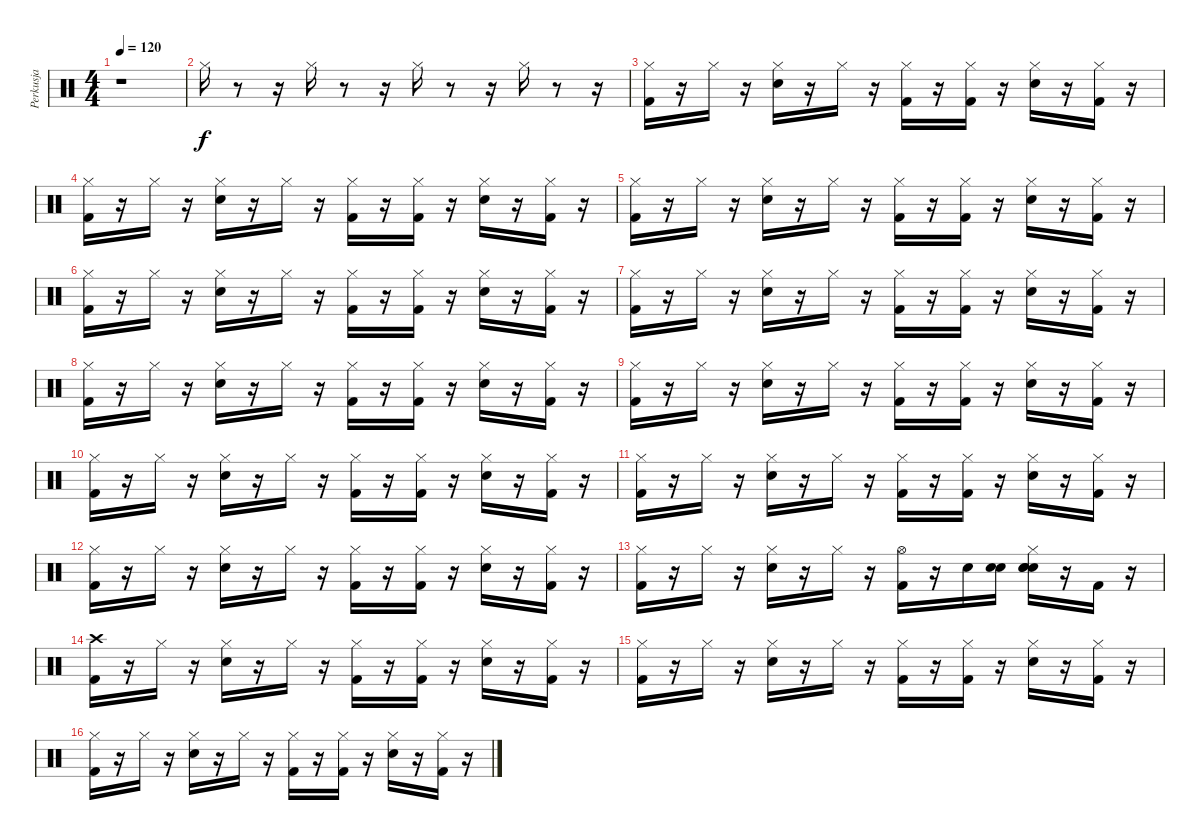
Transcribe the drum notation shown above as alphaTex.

\track ("Perkusja" "Perkusja") {instrument percussion}
\staff {score}
\articulation defaults
\ts (4 4)
\tempo 120
\clef neutral
\ks c
r.1{dy f} |
"Hi-Hat (closed)".16 r.8 r.16 "Hi-Hat (closed)".16 r.8 r.16 "Hi-Hat (closed)".16 r.8 r.16 "Hi-Hat (closed)".16 r.8 r.16 |
("Kick (hit) 2" "Hi-Hat (closed)").16 r.16 "Hi-Hat (closed)".16 r.16 ("Snare (hit) 2" "Hi-Hat (closed)").16 r.16 "Hi-Hat (closed)".16 r.16 ("Hi-Hat (closed)" "Kick (hit) 2").16 r.16 ("Hi-Hat (closed)" "Kick (hit) 2").16 r.16 ("Hi-Hat (closed)" "Snare (hit) 2").16 r.16 ("Hi-Hat (closed)" "Kick (hit) 2").16 r.16 |
("Kick (hit) 2" "Hi-Hat (closed)").16 r.16 "Hi-Hat (closed)".16 r.16 ("Hi-Hat (closed)" "Snare (hit) 2").16 r.16 "Hi-Hat (closed)".16 r.16 ("Hi-Hat (closed)" "Kick (hit) 2").16 r.16 ("Hi-Hat (closed)" "Kick (hit) 2").16 r.16 ("Hi-Hat (closed)" "Snare (hit) 2").16 r.16 ("Kick (hit) 2" "Hi-Hat (closed)").16 r.16 |
("Kick (hit) 2" "Hi-Hat (closed)").16 r.16 "Hi-Hat (closed)".16 r.16 ("Hi-Hat (closed)" "Snare (hit) 2").16 r.16 "Hi-Hat (closed)".16 r.16 ("Hi-Hat (closed)" "Kick (hit) 2").16 r.16 ("Hi-Hat (closed)" "Kick (hit) 2").16 r.16 ("Hi-Hat (closed)" "Snare (hit) 2").16 r.16 ("Hi-Hat (closed)" "Kick (hit) 2").16 r.16 |
("Kick (hit) 2" "Hi-Hat (closed)").16 r.16 "Hi-Hat (closed)".16 r.16 ("Snare (hit) 2" "Hi-Hat (closed)").16 r.16 "Hi-Hat (closed)".16 r.16 ("Kick (hit) 2" "Hi-Hat (closed)").16 r.16 ("Hi-Hat (closed)" "Kick (hit) 2").16 r.16 ("Snare (hit) 2" "Hi-Hat (closed)").16 r.16 ("Hi-Hat (closed)" "Kick (hit) 2").16 r.16 |
("Kick (hit) 2" "Hi-Hat (closed)").16 r.16 "Hi-Hat (closed)".16 r.16 ("Hi-Hat (closed)" "Snare (hit) 2").16 r.16 "Hi-Hat (closed)".16 r.16 ("Hi-Hat (closed)" "Kick (hit) 2").16 r.16 ("Kick (hit) 2" "Hi-Hat (closed)").16 r.16 ("Hi-Hat (closed)" "Snare (hit) 2").16 r.16 ("Hi-Hat (closed)" "Kick (hit) 2").16 r.16 |
("Kick (hit) 2" "Hi-Hat (closed)").16 r.16 "Hi-Hat (closed)".16 r.16 ("Hi-Hat (closed)" "Snare (hit) 2").16 r.16 "Hi-Hat (closed)".16 r.16 ("Kick (hit) 2" "Hi-Hat (closed)").16 r.16 ("Hi-Hat (closed)" "Kick (hit) 2").16 r.16 ("Hi-Hat (closed)" "Snare (hit) 2").16 r.16 ("Hi-Hat (closed)" "Kick (hit) 2").16 r.16 |
("Kick (hit) 2" "Hi-Hat (closed)").16 r.16 "Hi-Hat (closed)".16 r.16 ("Hi-Hat (closed)" "Snare (hit) 2").16 r.16 "Hi-Hat (closed)".16 r.16 ("Kick (hit) 2" "Hi-Hat (closed)").16 r.16 ("Kick (hit) 2" "Hi-Hat (closed)").16 r.16 ("Hi-Hat (closed)" "Snare (hit) 2").16 r.16 ("Hi-Hat (closed)" "Kick (hit) 2").16 r.16 |
("Hi-Hat (closed)" "Kick (hit) 2").16 r.16 "Hi-Hat (closed)".16 r.16 ("Hi-Hat (closed)" "Snare (hit) 2").16 r.16 "Hi-Hat (closed)".16 r.16 ("Kick (hit) 2" "Hi-Hat (closed)").16 r.16 ("Kick (hit) 2" "Hi-Hat (closed)").16 r.16 ("Hi-Hat (closed)" "Snare (hit) 2").16 r.16 ("Hi-Hat (closed)" "Kick (hit) 2").16 r.16 |
("Hi-Hat (closed)" "Kick (hit) 2").16 r.16 "Hi-Hat (closed)".16 r.16 ("Hi-Hat (closed)" "Snare (hit) 2").16 r.16 "Hi-Hat (closed)".16 r.16 ("Kick (hit) 2" "Hi-Hat (closed)").16 r.16 ("Hi-Hat (closed)" "Kick (hit) 2").16 r.16 ("Hi-Hat (closed)" "Snare (hit) 2").16 r.16 ("Kick (hit) 2" "Hi-Hat (closed)").16 r.16 |
("Hi-Hat (closed)" "Kick (hit) 2").16 r.16 "Hi-Hat (closed)".16 r.16 ("Snare (hit) 2" "Hi-Hat (closed)").16 r.16 "Hi-Hat (closed)".16 r.16 ("Hi-Hat (closed)" "Kick (hit) 2").16 r.16 ("Kick (hit) 2" "Hi-Hat (closed)").16 r.16 ("Hi-Hat (closed)" "Snare (hit) 2").16 r.16 ("Kick (hit) 2" "Hi-Hat (closed)").16 r.16 |
("Hi-Hat (closed)" "Kick (hit) 2").16 r.16 "Hi-Hat (closed)".16 r.16 ("Hi-Hat (closed)" "Snare (hit) 2").16 r.16 "Hi-Hat (closed)".16 r.16 ("Hi-Hat (open)" "Kick (hit) 2").16 r.16 "Snare (hit) 2".16 ("Snare (hit)" "Snare (hit) 2").16 ("Snare (hit)" "Electric Snare (hit)" "Snare (hit) 2" "Hi-Hat (closed)").16 r.16 "Kick (hit) 2".16 r.16 |
("Crash high (hit)" "Kick (hit) 2").16 r.16 "Hi-Hat (closed)".16 r.16 ("Snare (hit) 2" "Hi-Hat (closed)").16 r.16 "Hi-Hat (closed)".16 r.16 ("Kick (hit) 2" "Hi-Hat (closed)").16 r.16 ("Kick (hit) 2" "Hi-Hat (closed)").16 r.16 ("Hi-Hat (closed)" "Snare (hit) 2").16 r.16 ("Kick (hit) 2" "Hi-Hat (closed)").16 r.16 |
("Hi-Hat (closed)" "Kick (hit) 2").16 r.16 "Hi-Hat (closed)".16 r.16 ("Snare (hit) 2" "Hi-Hat (closed)").16 r.16 "Hi-Hat (closed)".16 r.16 ("Kick (hit) 2" "Hi-Hat (closed)").16 r.16 ("Hi-Hat (closed)" "Kick (hit) 2").16 r.16 ("Hi-Hat (closed)" "Snare (hit) 2").16 r.16 ("Kick (hit) 2" "Hi-Hat (closed)").16 r.16 |
("Kick (hit) 2" "Hi-Hat (closed)").16 r.16 "Hi-Hat (closed)".16 r.16 ("Snare (hit) 2" "Hi-Hat (closed)").16 r.16 "Hi-Hat (closed)".16 r.16 ("Kick (hit) 2" "Hi-Hat (closed)").16 r.16 ("Kick (hit) 2" "Hi-Hat (closed)").16 r.16 ("Hi-Hat (closed)" "Snare (hit) 2").16 r.16 ("Kick (hit) 2" "Hi-Hat (closed)").16 r.16
